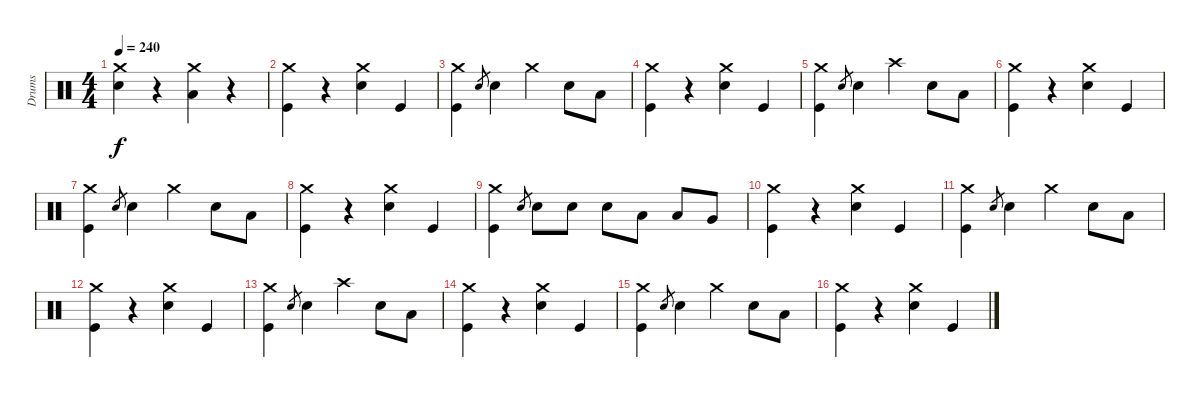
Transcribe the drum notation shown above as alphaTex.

\track ("Drums" "Drums") {instrument percussion}
\staff {score}
\articulation defaults
\ts (4 4)
\tempo 240
\clef neutral
\ks c
("Crash medium (hit)" "Snare (hit) 2").4{dy f} r.4 ("Crash medium (hit)" "Low Tom (hit)").4 r.4 |
("Crash medium (hit)" "Kick (hit)").4 r.4 ("Crash medium (hit)" "Snare (hit) 2").4 "Kick (hit)".4 |
("Crash medium (hit)" "Kick (hit)").4 "Snare (hit) 2".8{gr} "Snare (hit) 2".4 "Crash medium (hit)".4 "Snare (hit) 2".8 "Low Tom (hit)".8 |
("Crash medium (hit)" "Kick (hit)").4 r.4 ("Crash medium (hit)" "Snare (hit) 2").4 "Kick (hit)".4 |
("Crash medium (hit)" "Kick (hit)").4 "Snare (hit) 2".8{gr} "Snare (hit) 2".4 "Crash high (hit)".4 "Snare (hit) 2".8 "Low Tom (hit)".8 |
("Crash medium (hit)" "Kick (hit)").4 r.4 ("Crash medium (hit)" "Snare (hit) 2").4 "Kick (hit)".4 |
("Crash medium (hit)" "Kick (hit)").4 "Snare (hit) 2".8{gr} "Snare (hit) 2".4 "Crash medium (hit)".4 "Snare (hit) 2".8 "Low Tom (hit)".8 |
("Crash medium (hit)" "Kick (hit)").4 r.4 ("Crash medium (hit)" "Snare (hit) 2").4 "Kick (hit)".4 |
("Crash medium (hit)" "Kick (hit)").4 "Snare (hit) 2".8{gr} "Snare (hit) 2".8 "Snare (hit) 2".8 "Snare (hit) 2".8 "Low Tom (hit)".8 "Low Tom (hit)".8 "Very Low Tom (hit)".8 |
("Crash medium (hit)" "Kick (hit)").4 r.4 ("Crash medium (hit)" "Snare (hit) 2").4 "Kick (hit)".4 |
("Crash medium (hit)" "Kick (hit)").4 "Snare (hit) 2".8{gr} "Snare (hit) 2".4 "Crash medium (hit)".4 "Snare (hit) 2".8 "Low Tom (hit)".8 |
("Crash medium (hit)" "Kick (hit)").4 r.4 ("Crash medium (hit)" "Snare (hit) 2").4 "Kick (hit)".4 |
("Crash medium (hit)" "Kick (hit)").4 "Snare (hit) 2".8{gr} "Snare (hit) 2".4 "Crash high (hit)".4 "Snare (hit) 2".8 "Low Tom (hit)".8 |
("Crash medium (hit)" "Kick (hit)").4 r.4 ("Crash medium (hit)" "Snare (hit) 2").4 "Kick (hit)".4 |
("Crash medium (hit)" "Kick (hit)").4 "Snare (hit) 2".8{gr} "Snare (hit) 2".4 "Crash medium (hit)".4 "Snare (hit) 2".8 "Low Tom (hit)".8 |
("Crash medium (hit)" "Kick (hit)").4 r.4 ("Crash medium (hit)" "Snare (hit) 2").4 "Kick (hit)".4
